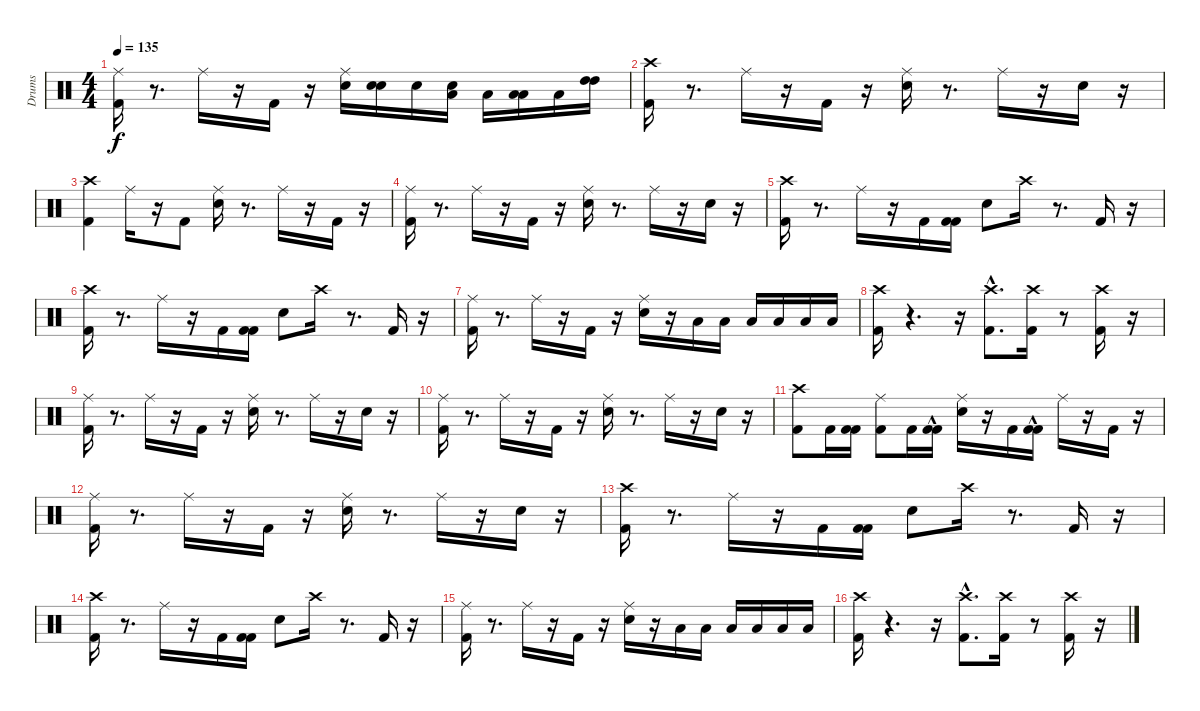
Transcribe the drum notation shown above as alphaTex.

\track ("Drums" "Drums") {instrument percussion}
\staff {score}
\articulation defaults
\ts (4 4)
\tempo 135
\clef neutral
\ks c
("Kick (hit) 2" "Ride (middle)").16{dy f} r.8{d} "Ride (middle)".16 r.16 "Kick (hit) 2".16 r.16 ("Snare (hit) 2" "Ride (middle)").16 ("Snare (hit) 2" "Snare (hit) 2").16 "Snare (hit) 2".16 ("Low Tom (hit)" "Snare (hit) 2").16 "Low Tom (hit)".16 ("Low Tom (hit)" "Low Tom (hit)").16 "Low Tom (hit)".16 ("High Tom (hit)" "High Tom (hit)").16 |
("Kick (hit) 2" "Crash high (hit)").16 r.8{d} "Ride (middle)".16 r.16 "Kick (hit) 2".16 r.16 ("Snare (hit) 2" "Ride (middle)").16 r.8{d} "Ride (middle)".16 r.16 "Snare (hit) 2".16 r.16 |
("Kick (hit) 2" "Crash high (hit)").4 "Ride (middle)".16 r.16 "Kick (hit) 2".8 ("Ride (middle)" "Snare (hit) 2").16 r.8{d} "Ride (middle)".16 r.16 "Kick (hit) 2".16 r.16 |
("Kick (hit) 2" "Ride (middle)").16 r.8{d} "Ride (middle)".16 r.16 "Kick (hit) 2".16 r.16 ("Snare (hit) 2" "Ride (middle)").16 r.8{d} "Ride (middle)".16 r.16 "Snare (hit) 2".16 r.16 |
("Kick (hit) 2" "Crash high (hit)").16 r.8{d} "Ride (middle)".16 r.16 "Kick (hit) 2".16 ("Kick (hit) 2" "Kick (hit) 2").16 "Snare (hit) 2".8 "Crash high (hit)".16 r.8{d} "Kick (hit) 2".16 r.16 |
("Kick (hit) 2" "Crash high (hit)").16 r.8{d} "Ride (middle)".16 r.16 "Kick (hit) 2".16 ("Kick (hit) 2" "Kick (hit) 2").16 "Snare (hit) 2".8 "Crash high (hit)".16 r.8{d} "Kick (hit) 2".16 r.16 |
("Kick (hit) 2" "Ride (middle)").16 r.8{d} "Ride (middle)".16 r.16 "Kick (hit) 2".16 r.16 ("Snare (hit) 2" "Ride (middle)").16 r.16 "Low Tom (hit)".16 "Low Tom (hit)".16 "Low Tom (hit)".16 "Low Floor Tom (hit)".16 "Low Floor Tom (hit)".16 "Low Floor Tom (hit)".16 |
("Kick (hit) 2" "Crash high (hit)").16 r.4{d} r.16 ("Kick (hit) 2"{hac} "Crash high (hit)"{hac}).8{d} ("Kick (hit) 2" "Crash high (hit)").16 r.8 ("Kick (hit) 2" "Crash high (hit)").16 r.16 |
("Kick (hit) 2" "Ride (middle)").16 r.8{d} "Ride (middle)".16 r.16 "Kick (hit) 2".16 r.16 ("Snare (hit) 2" "Ride (middle)").16 r.8{d} "Ride (middle)".16 r.16 "Snare (hit) 2".16 r.16 |
("Kick (hit) 2" "Ride (middle)").16 r.8{d} "Ride (middle)".16 r.16 "Kick (hit) 2".16 r.16 ("Snare (hit) 2" "Ride (middle)").16 r.8{d} "Ride (middle)".16 r.16 "Snare (hit) 2".16 r.16 |
("Kick (hit) 2" "Crash high (hit)").8 "Kick (hit) 2".16 ("Kick (hit) 2" "Kick (hit) 2").16 ("Kick (hit) 2" "Ride (middle)").8 "Kick (hit) 2".16 ("Kick (hit) 2"{hac} "Kick (hit) 2"{hac}).16 ("Snare (hit) 2" "Ride (middle)").16 r.16 "Kick (hit) 2".16 ("Kick (hit) 2"{hac} "Kick (hit) 2"{hac}).16 "Ride (middle)".16 r.16 "Kick (hit) 2".16 r.16 |
("Kick (hit) 2" "Ride (middle)").16 r.8{d} "Ride (middle)".16 r.16 "Kick (hit) 2".16 r.16 ("Snare (hit) 2" "Ride (middle)").16 r.8{d} "Ride (middle)".16 r.16 "Snare (hit) 2".16 r.16 |
("Kick (hit) 2" "Crash high (hit)").16 r.8{d} "Ride (middle)".16 r.16 "Kick (hit) 2".16 ("Kick (hit) 2" "Kick (hit) 2").16 "Snare (hit) 2".8 "Crash high (hit)".16 r.8{d} "Kick (hit) 2".16 r.16 |
("Kick (hit) 2" "Crash high (hit)").16 r.8{d} "Ride (middle)".16 r.16 "Kick (hit) 2".16 ("Kick (hit) 2" "Kick (hit) 2").16 "Snare (hit) 2".8 "Crash high (hit)".16 r.8{d} "Kick (hit) 2".16 r.16 |
("Kick (hit) 2" "Ride (middle)").16 r.8{d} "Ride (middle)".16 r.16 "Kick (hit) 2".16 r.16 ("Snare (hit) 2" "Ride (middle)").16 r.16 "Low Tom (hit)".16 "Low Tom (hit)".16 "Low Tom (hit)".16 "Low Floor Tom (hit)".16 "Low Floor Tom (hit)".16 "Low Floor Tom (hit)".16 |
("Kick (hit) 2" "Crash high (hit)").16 r.4{d} r.16 ("Kick (hit) 2"{hac} "Crash high (hit)"{hac}).8{d} ("Kick (hit) 2" "Crash high (hit)").16 r.8 ("Kick (hit) 2" "Crash high (hit)").16 r.16
